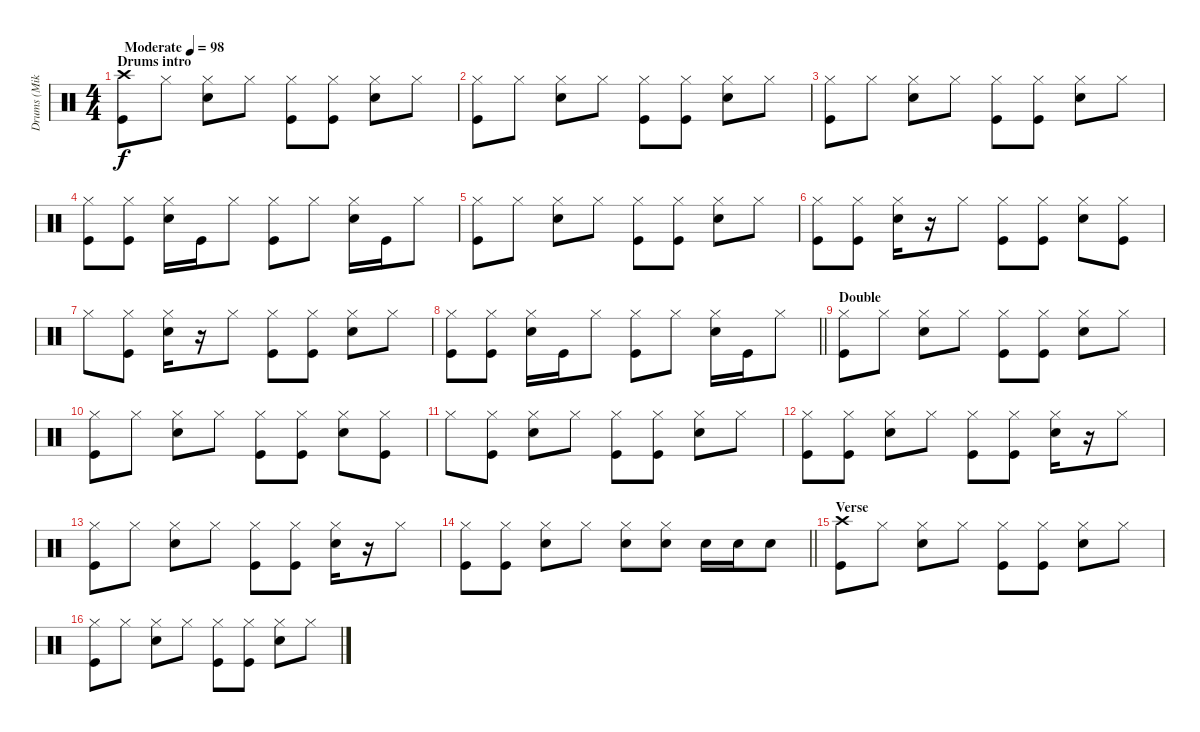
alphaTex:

\track ("Drums (Mike Kellie)" "Drums (Mik") {instrument percussion}
\staff {score}
\articulation defaults
\ts (4 4)
\section ("" "Drums intro")
\tempo (98 "Moderate")
\clef neutral
\ks c
("Crash high (hit)" "Kick (hit)").8{dy f} "Hi-Hat (closed)".8 ("Hi-Hat (closed)" "Electric Snare (hit)").8 "Hi-Hat (closed)".8 ("Hi-Hat (closed)" "Kick (hit)").8 ("Hi-Hat (closed)" "Kick (hit)").8 ("Hi-Hat (closed)" "Electric Snare (hit)").8 "Hi-Hat (closed)".8 |
("Hi-Hat (closed)" "Kick (hit)").8 "Hi-Hat (closed)".8 ("Hi-Hat (closed)" "Electric Snare (hit)").8 "Hi-Hat (closed)".8 ("Hi-Hat (closed)" "Kick (hit)").8 ("Hi-Hat (closed)" "Kick (hit)").8 ("Hi-Hat (closed)" "Electric Snare (hit)").8 "Hi-Hat (closed)".8 |
("Hi-Hat (closed)" "Kick (hit)").8 "Hi-Hat (closed)".8 ("Hi-Hat (closed)" "Electric Snare (hit)").8 "Hi-Hat (closed)".8 ("Hi-Hat (closed)" "Kick (hit)").8 ("Hi-Hat (closed)" "Kick (hit)").8 ("Hi-Hat (closed)" "Electric Snare (hit)").8 "Hi-Hat (closed)".8 |
("Hi-Hat (closed)" "Kick (hit)").8 ("Hi-Hat (closed)" "Kick (hit)").8 ("Hi-Hat (closed)" "Electric Snare (hit)").16 "Kick (hit)".16 "Hi-Hat (closed)".8 ("Hi-Hat (closed)" "Kick (hit)").8 "Hi-Hat (closed)".8 ("Hi-Hat (closed)" "Electric Snare (hit)").16 "Kick (hit)".16 "Hi-Hat (closed)".8 |
("Hi-Hat (closed)" "Kick (hit)").8 "Hi-Hat (closed)".8 ("Hi-Hat (closed)" "Electric Snare (hit)").8 "Hi-Hat (closed)".8 ("Hi-Hat (closed)" "Kick (hit)").8 ("Hi-Hat (closed)" "Kick (hit)").8 ("Hi-Hat (closed)" "Electric Snare (hit)").8 "Hi-Hat (closed)".8 |
("Hi-Hat (closed)" "Kick (hit)").8 ("Hi-Hat (closed)" "Kick (hit)").8 ("Hi-Hat (closed)" "Electric Snare (hit)").16 r.16 "Hi-Hat (closed)".8 ("Hi-Hat (closed)" "Kick (hit)").8 ("Hi-Hat (closed)" "Kick (hit)").8 ("Hi-Hat (closed)" "Electric Snare (hit)").8 ("Hi-Hat (closed)" "Kick (hit)").8 |
"Hi-Hat (closed)".8 ("Hi-Hat (closed)" "Kick (hit)").8 ("Hi-Hat (closed)" "Electric Snare (hit)").16 r.16 "Hi-Hat (closed)".8 ("Hi-Hat (closed)" "Kick (hit)").8 ("Hi-Hat (closed)" "Kick (hit)").8 ("Hi-Hat (closed)" "Electric Snare (hit)").8 "Hi-Hat (closed)".8 |
\barLineRight lightlight
("Hi-Hat (closed)" "Kick (hit)").8 ("Hi-Hat (closed)" "Kick (hit)").8 ("Hi-Hat (closed)" "Electric Snare (hit)").16 "Kick (hit)".16 "Hi-Hat (closed)".8 ("Hi-Hat (closed)" "Kick (hit)").8 "Hi-Hat (closed)".8 ("Hi-Hat (closed)" "Electric Snare (hit)").16 "Kick (hit)".16 "Hi-Hat (closed)".8 |
\section ("" "Double")
("Hi-Hat (closed)" "Kick (hit)").8 "Hi-Hat (closed)".8 ("Hi-Hat (closed)" "Electric Snare (hit)").8 "Hi-Hat (closed)".8 ("Hi-Hat (closed)" "Kick (hit)").8 ("Hi-Hat (closed)" "Kick (hit)").8 ("Hi-Hat (closed)" "Electric Snare (hit)").8 "Hi-Hat (closed)".8 |
("Hi-Hat (closed)" "Kick (hit)").8 "Hi-Hat (closed)".8 ("Hi-Hat (closed)" "Electric Snare (hit)").8 "Hi-Hat (closed)".8 ("Hi-Hat (closed)" "Kick (hit)").8 ("Hi-Hat (closed)" "Kick (hit)").8 ("Hi-Hat (closed)" "Electric Snare (hit)").8 ("Hi-Hat (closed)" "Kick (hit)").8 |
"Hi-Hat (closed)".8 ("Hi-Hat (closed)" "Kick (hit)").8 ("Hi-Hat (closed)" "Electric Snare (hit)").8 "Hi-Hat (closed)".8 ("Hi-Hat (closed)" "Kick (hit)").8 ("Hi-Hat (closed)" "Kick (hit)").8 ("Hi-Hat (closed)" "Electric Snare (hit)").8 "Hi-Hat (closed)".8 |
("Hi-Hat (closed)" "Kick (hit)").8 ("Hi-Hat (closed)" "Kick (hit)").8 ("Hi-Hat (closed)" "Electric Snare (hit)").8 "Hi-Hat (closed)".8 ("Hi-Hat (closed)" "Kick (hit)").8 ("Hi-Hat (closed)" "Kick (hit)").8 ("Hi-Hat (closed)" "Electric Snare (hit)").16 r.16 "Hi-Hat (closed)".8 |
("Hi-Hat (closed)" "Kick (hit)").8 "Hi-Hat (closed)".8 ("Hi-Hat (closed)" "Electric Snare (hit)").8 "Hi-Hat (closed)".8 ("Hi-Hat (closed)" "Kick (hit)").8 ("Hi-Hat (closed)" "Kick (hit)").8 ("Hi-Hat (closed)" "Electric Snare (hit)").16 r.16 "Hi-Hat (closed)".8 |
\barLineRight lightlight
("Hi-Hat (closed)" "Kick (hit)").8 ("Hi-Hat (closed)" "Kick (hit)").8 ("Hi-Hat (closed)" "Electric Snare (hit)").8 "Hi-Hat (closed)".8 ("Hi-Hat (closed)" "Electric Snare (hit)").8 ("Hi-Hat (closed)" "Electric Snare (hit)").8 "Electric Snare (hit)".16 "Electric Snare (hit)".16 "Electric Snare (hit)".8 |
\section ("" "Verse")
("Crash high (hit)" "Kick (hit)").8 "Hi-Hat (closed)".8 ("Hi-Hat (closed)" "Electric Snare (hit)").8 "Hi-Hat (closed)".8 ("Hi-Hat (closed)" "Kick (hit)").8 ("Hi-Hat (closed)" "Kick (hit)").8 ("Hi-Hat (closed)" "Electric Snare (hit)").8 "Hi-Hat (closed)".8 |
("Hi-Hat (closed)" "Kick (hit)").8 "Hi-Hat (closed)".8 ("Hi-Hat (closed)" "Electric Snare (hit)").8 "Hi-Hat (closed)".8 ("Hi-Hat (closed)" "Kick (hit)").8 ("Hi-Hat (closed)" "Kick (hit)").8 ("Hi-Hat (closed)" "Electric Snare (hit)").8 "Hi-Hat (closed)".8
